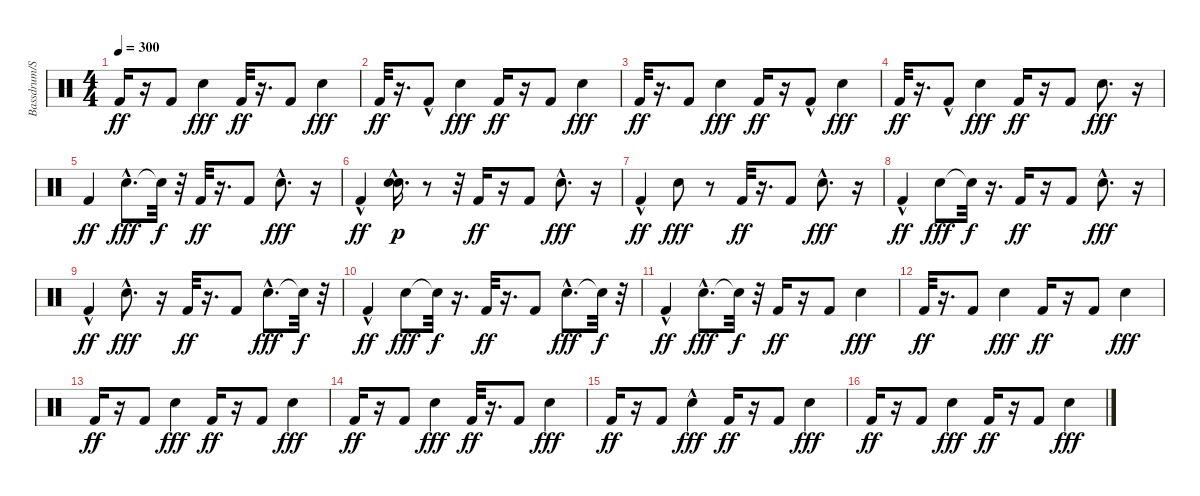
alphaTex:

\track ("Bassdrum/Snare" "Bassdrum/S") {instrument percussion}
\staff {score}
\articulation defaults
\ts (4 4)
\tempo 300
\clef neutral
\ks c "Kick (hit) 2".16{dy ff}
r.16 "Kick (hit) 2".8 "Snare (hit) 2".4{dy fff} "Kick (hit) 2".32{dy ff} r.16{d} "Kick (hit) 2".8 "Snare (hit) 2".4{dy fff} |
"Kick (hit) 2".32{dy ff} r.16{d} "Kick (hit) 2"{hac}.8 "Snare (hit) 2".4{dy fff} "Kick (hit) 2".16{dy ff} r.16 "Kick (hit) 2".8 "Snare (hit) 2".4{dy fff} |
"Kick (hit) 2".32{dy ff} r.16{d} "Kick (hit) 2".8 "Snare (hit) 2".4{dy fff} "Kick (hit) 2".16{dy ff} r.16 "Kick (hit) 2"{hac}.8 "Snare (hit) 2".4{dy fff} |
"Kick (hit) 2".32{dy ff} r.16{d} "Kick (hit) 2"{hac}.8 "Snare (hit) 2".4{dy fff} "Kick (hit) 2".16{dy ff} r.16 "Kick (hit) 2".8 "Snare (hit) 2".8{d dy fff} r.16 |
"Kick (hit) 2".4{dy ff} "Snare (hit) 2"{hac}.8{d dy fff} "Snare (hit)"{t}.32{dy f} r.32 "Kick (hit) 2".32{dy ff} r.16{d} "Kick (hit) 2".8 "Snare (hit) 2"{hac}.8{d dy fff} r.16 |
"Kick (hit) 2"{hac}.4{dy ff} ("Snare (hit) 2"{hac} "Hand Clap (hit)").16{d dy p} r.8 r.32 "Kick (hit) 2".16{dy ff} r.16 "Kick (hit) 2".8 "Snare (hit) 2"{hac}.8{d dy fff} r.16 |
"Kick (hit) 2"{hac}.4{dy ff} "Snare (hit) 2".8{dy fff} r.8 "Kick (hit) 2".32{dy ff} r.16{d} "Kick (hit) 2".8 "Snare (hit) 2"{hac}.8{d dy fff} r.16 |
"Kick (hit) 2"{hac}.4{dy ff} "Snare (hit) 2".8{dy fff} "Snare (hit)"{t}.32{dy f} r.16{d} "Kick (hit) 2".16{dy ff} r.16 "Kick (hit) 2".8 "Snare (hit) 2"{hac}.8{d dy fff} r.16 |
"Kick (hit) 2"{hac}.4{dy ff} "Snare (hit) 2"{hac}.8{d dy fff} r.16 "Kick (hit) 2".32{dy ff} r.16{d} "Kick (hit) 2".8 "Snare (hit) 2"{hac}.8{d dy fff} "Snare (hit)"{t}.32{dy f} r.32 |
"Kick (hit) 2"{hac}.4{dy ff} "Snare (hit) 2".8{dy fff} "Snare (hit)"{t}.32{dy f} r.16{d} "Kick (hit) 2".32{dy ff} r.16{d} "Kick (hit) 2".8 "Snare (hit) 2"{hac}.8{d dy fff} "Snare (hit)"{t}.32{dy f} r.32 |
"Kick (hit) 2"{hac}.4{dy ff} "Snare (hit) 2"{hac}.8{d dy fff} "Snare (hit)"{t}.32{dy f} r.32 "Kick (hit) 2".16{dy ff} r.16 "Kick (hit) 2".8 "Snare (hit) 2".4{dy fff} |
"Kick (hit) 2".32{dy ff} r.16{d} "Kick (hit) 2".8 "Snare (hit) 2".4{dy fff} "Kick (hit) 2".16{dy ff} r.16 "Kick (hit) 2".8 "Snare (hit) 2".4{dy fff} |
"Kick (hit) 2".16{dy ff} r.16 "Kick (hit) 2".8 "Snare (hit) 2".4{dy fff} "Kick (hit) 2".16{dy ff} r.16 "Kick (hit) 2".8 "Snare (hit) 2".4{dy fff} |
"Kick (hit) 2".16{dy ff} r.16 "Kick (hit) 2".8 "Snare (hit) 2".4{dy fff} "Kick (hit) 2".32{dy ff} r.16{d} "Kick (hit) 2".8 "Snare (hit) 2".4{dy fff} |
"Kick (hit) 2".16{dy ff} r.16 "Kick (hit) 2".8 "Snare (hit) 2"{hac}.4{dy fff} "Kick (hit) 2".16{dy ff} r.16 "Kick (hit) 2".8 "Snare (hit) 2".4{dy fff} |
"Kick (hit) 2".16{dy ff} r.16 "Kick (hit) 2".8 "Snare (hit) 2".4{dy fff} "Kick (hit) 2".16{dy ff} r.16 "Kick (hit) 2".8 "Snare (hit) 2".4{dy fff}
